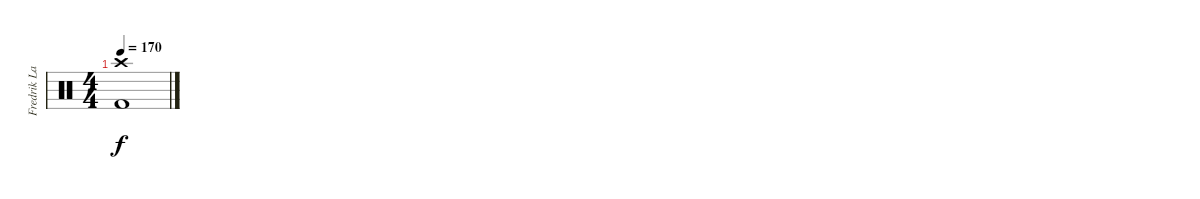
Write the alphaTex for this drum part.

\track ("Fredrik Larzon" "Fredrik La") {instrument percussion}
\staff {score}
\articulation defaults
\ts (4 4)
\tempo 170
\clef neutral
\ks c
("Crash high (hit)" "Kick (hit) 2").1{dy f}
